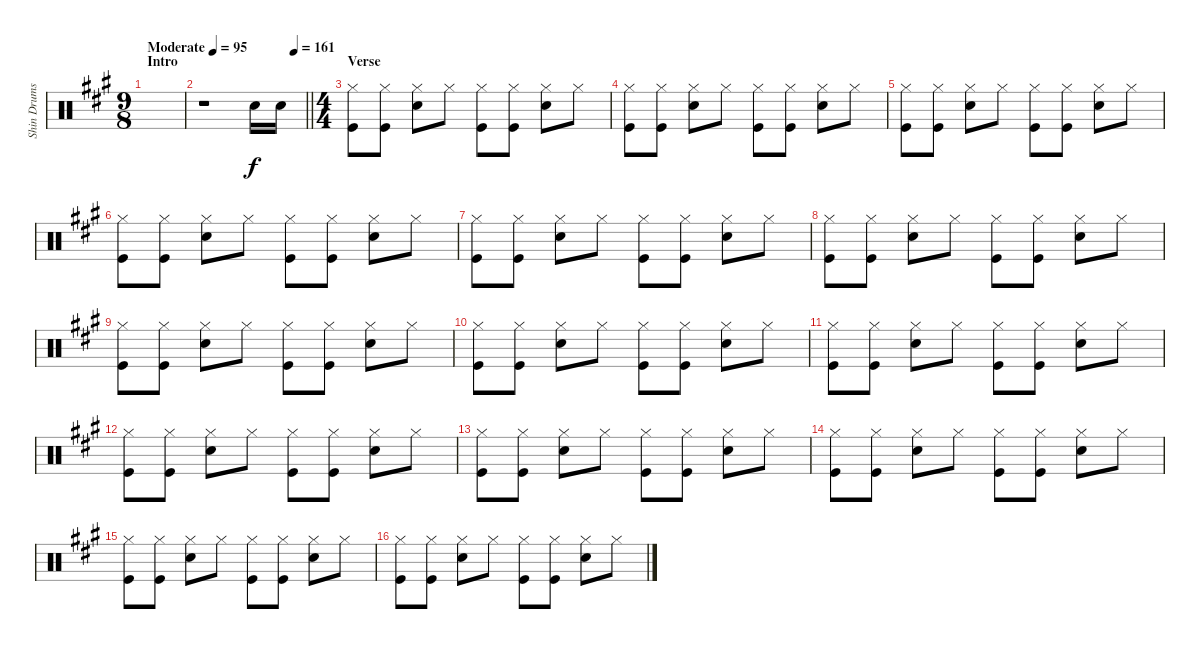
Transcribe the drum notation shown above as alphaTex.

\track ("Shin Drums" "Shin Drums") {instrument percussion}
\staff {score}
\articulation defaults
\ts (9 8)
\section ("" "Intro")
\tempo (95 "Moderate")
\clef neutral
\ks a
|
\tempo (161 0.8888888888888888)
\barLineRight lightlight
r.1 "Snare (hit) 2".16 "Snare (hit) 2".16 |
\ts (4 4)
\section ("" "Verse")
("Hi-Hat (closed)" "Kick (hit)").8 ("Hi-Hat (closed)" "Kick (hit)").8 ("Hi-Hat (closed)" "Snare (hit) 2").8 "Hi-Hat (closed)".8 ("Hi-Hat (closed)" "Kick (hit)").8 ("Hi-Hat (closed)" "Kick (hit)").8 ("Hi-Hat (closed)" "Snare (hit) 2").8 "Hi-Hat (closed)".8 |
("Hi-Hat (closed)" "Kick (hit)").8 ("Hi-Hat (closed)" "Kick (hit)").8 ("Hi-Hat (closed)" "Snare (hit) 2").8 "Hi-Hat (closed)".8 ("Hi-Hat (closed)" "Kick (hit)").8 ("Hi-Hat (closed)" "Kick (hit)").8 ("Hi-Hat (closed)" "Snare (hit) 2").8 "Hi-Hat (closed)".8 |
("Hi-Hat (closed)" "Kick (hit)").8 ("Hi-Hat (closed)" "Kick (hit)").8 ("Hi-Hat (closed)" "Snare (hit) 2").8 "Hi-Hat (closed)".8 ("Hi-Hat (closed)" "Kick (hit)").8 ("Hi-Hat (closed)" "Kick (hit)").8 ("Hi-Hat (closed)" "Snare (hit) 2").8 "Hi-Hat (closed)".8 |
("Hi-Hat (closed)" "Kick (hit)").8 ("Hi-Hat (closed)" "Kick (hit)").8 ("Hi-Hat (closed)" "Snare (hit) 2").8 "Hi-Hat (closed)".8 ("Hi-Hat (closed)" "Kick (hit)").8 ("Hi-Hat (closed)" "Kick (hit)").8 ("Hi-Hat (closed)" "Snare (hit) 2").8 "Hi-Hat (closed)".8 |
("Hi-Hat (closed)" "Kick (hit)").8 ("Hi-Hat (closed)" "Kick (hit)").8 ("Hi-Hat (closed)" "Snare (hit) 2").8 "Hi-Hat (closed)".8 ("Hi-Hat (closed)" "Kick (hit)").8 ("Hi-Hat (closed)" "Kick (hit)").8 ("Hi-Hat (closed)" "Snare (hit) 2").8 "Hi-Hat (closed)".8 |
("Hi-Hat (closed)" "Kick (hit)").8 ("Hi-Hat (closed)" "Kick (hit)").8 ("Hi-Hat (closed)" "Snare (hit) 2").8 "Hi-Hat (closed)".8 ("Hi-Hat (closed)" "Kick (hit)").8 ("Hi-Hat (closed)" "Kick (hit)").8 ("Hi-Hat (closed)" "Snare (hit) 2").8 "Hi-Hat (closed)".8 |
("Hi-Hat (closed)" "Kick (hit)").8 ("Hi-Hat (closed)" "Kick (hit)").8 ("Hi-Hat (closed)" "Snare (hit) 2").8 "Hi-Hat (closed)".8 ("Hi-Hat (closed)" "Kick (hit)").8 ("Hi-Hat (closed)" "Kick (hit)").8 ("Hi-Hat (closed)" "Snare (hit) 2").8 "Hi-Hat (closed)".8 |
("Hi-Hat (closed)" "Kick (hit)").8 ("Hi-Hat (closed)" "Kick (hit)").8 ("Hi-Hat (closed)" "Snare (hit) 2").8 "Hi-Hat (closed)".8 ("Hi-Hat (closed)" "Kick (hit)").8 ("Hi-Hat (closed)" "Kick (hit)").8 ("Hi-Hat (closed)" "Snare (hit) 2").8 "Hi-Hat (closed)".8 |
("Hi-Hat (closed)" "Kick (hit)").8 ("Hi-Hat (closed)" "Kick (hit)").8 ("Hi-Hat (closed)" "Snare (hit) 2").8 "Hi-Hat (closed)".8 ("Hi-Hat (closed)" "Kick (hit)").8 ("Hi-Hat (closed)" "Kick (hit)").8 ("Hi-Hat (closed)" "Snare (hit) 2").8 "Hi-Hat (closed)".8 |
("Hi-Hat (closed)" "Kick (hit)").8 ("Hi-Hat (closed)" "Kick (hit)").8 ("Hi-Hat (closed)" "Snare (hit) 2").8 "Hi-Hat (closed)".8 ("Hi-Hat (closed)" "Kick (hit)").8 ("Hi-Hat (closed)" "Kick (hit)").8 ("Hi-Hat (closed)" "Snare (hit) 2").8 "Hi-Hat (closed)".8 |
("Hi-Hat (closed)" "Kick (hit)").8 ("Hi-Hat (closed)" "Kick (hit)").8 ("Hi-Hat (closed)" "Snare (hit) 2").8 "Hi-Hat (closed)".8 ("Hi-Hat (closed)" "Kick (hit)").8 ("Hi-Hat (closed)" "Kick (hit)").8 ("Hi-Hat (closed)" "Snare (hit) 2").8 "Hi-Hat (closed)".8 |
("Hi-Hat (closed)" "Kick (hit)").8 ("Hi-Hat (closed)" "Kick (hit)").8 ("Hi-Hat (closed)" "Snare (hit) 2").8 "Hi-Hat (closed)".8 ("Hi-Hat (closed)" "Kick (hit)").8 ("Hi-Hat (closed)" "Kick (hit)").8 ("Hi-Hat (closed)" "Snare (hit) 2").8 "Hi-Hat (closed)".8 |
("Hi-Hat (closed)" "Kick (hit)").8 ("Hi-Hat (closed)" "Kick (hit)").8 ("Hi-Hat (closed)" "Snare (hit) 2").8 "Hi-Hat (closed)".8 ("Hi-Hat (closed)" "Kick (hit)").8 ("Hi-Hat (closed)" "Kick (hit)").8 ("Hi-Hat (closed)" "Snare (hit) 2").8 "Hi-Hat (closed)".8 |
("Hi-Hat (closed)" "Kick (hit)").8 ("Hi-Hat (closed)" "Kick (hit)").8 ("Hi-Hat (closed)" "Snare (hit) 2").8 "Hi-Hat (closed)".8 ("Hi-Hat (closed)" "Kick (hit)").8 ("Hi-Hat (closed)" "Kick (hit)").8 ("Hi-Hat (closed)" "Snare (hit) 2").8 "Hi-Hat (closed)".8
